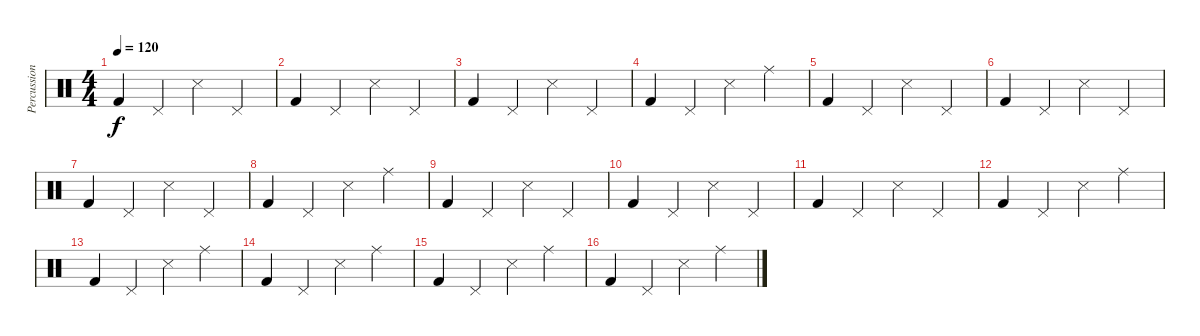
\track ("Percussion" "Percussion") {instrument percussion}
\staff {score}
\articulation defaults
\ts (4 4)
\tempo 120
\clef neutral
\ks c "Kick (hit) 2".4{dy f} "Pedal Hi-Hat (hit)".4 "Snare (side stick) 3".4 "Pedal Hi-Hat (hit)".4
|
"Kick (hit) 2".4 "Pedal Hi-Hat (hit)".4 "Snare (side stick) 3".4 "Pedal Hi-Hat (hit)".4 |
"Kick (hit) 2".4 "Pedal Hi-Hat (hit)".4 "Snare (side stick) 3".4 "Pedal Hi-Hat (hit)".4 |
"Kick (hit) 2".4 "Pedal Hi-Hat (hit)".4 "Snare (side stick) 3".4 "Ride (middle)".4 |
"Kick (hit) 2".4 "Pedal Hi-Hat (hit)".4 "Snare (side stick) 3".4 "Pedal Hi-Hat (hit)".4 |
"Kick (hit) 2".4 "Pedal Hi-Hat (hit)".4 "Snare (side stick) 3".4 "Pedal Hi-Hat (hit)".4 |
"Kick (hit) 2".4 "Pedal Hi-Hat (hit)".4 "Snare (side stick) 3".4 "Pedal Hi-Hat (hit)".4 |
"Kick (hit) 2".4 "Pedal Hi-Hat (hit)".4 "Snare (side stick) 3".4 "Ride (middle)".4 |
"Kick (hit) 2".4 "Pedal Hi-Hat (hit)".4 "Snare (side stick) 3".4 "Pedal Hi-Hat (hit)".4 |
"Kick (hit) 2".4 "Pedal Hi-Hat (hit)".4 "Snare (side stick) 3".4 "Pedal Hi-Hat (hit)".4 |
"Kick (hit) 2".4 "Pedal Hi-Hat (hit)".4 "Snare (side stick) 3".4 "Pedal Hi-Hat (hit)".4 |
"Kick (hit) 2".4 "Pedal Hi-Hat (hit)".4 "Snare (side stick) 3".4 "Ride (middle)".4 |
"Kick (hit) 2".4 "Pedal Hi-Hat (hit)".4 "Snare (side stick) 3".4 "Ride (middle)".4 |
"Kick (hit) 2".4 "Pedal Hi-Hat (hit)".4 "Snare (side stick) 3".4 "Ride (middle)".4 |
"Kick (hit) 2".4 "Pedal Hi-Hat (hit)".4 "Snare (side stick) 3".4 "Ride (middle)".4 |
"Kick (hit) 2".4 "Pedal Hi-Hat (hit)".4 "Snare (side stick) 3".4 "Ride (middle)".4
